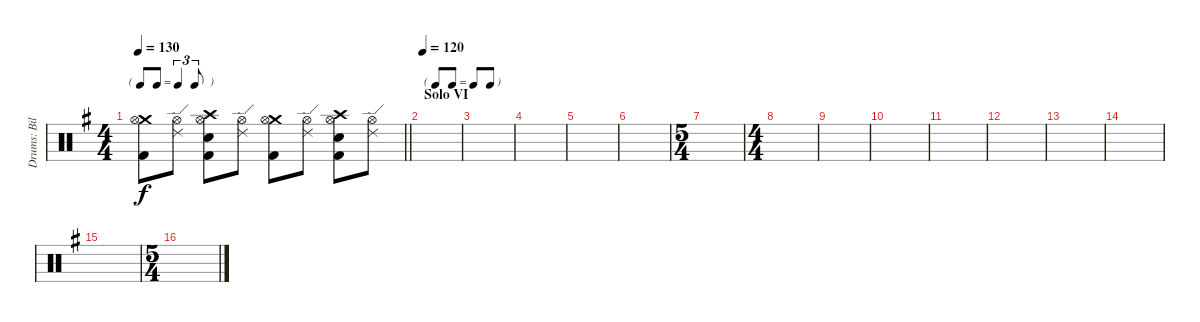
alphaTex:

\track ("Drums: Bill" "Drums: Bil") {instrument percussion}
\staff {score}
\articulation defaults
\ts (4 4)
\tf triplet8th
\tempo 130
\clef neutral
\barLineRight lightlight
\ks g
("Crash medium (hit)" "Hi-Hat (open)" "Kick (hit) 2").8{dy f} ("Ride (edge) 2" "Hi-Hat (open)").8 ("Crash high (hit)" "Hi-Hat (open)" "Snare (hit) 2" "Kick (hit) 2").8 ("Ride (edge) 2" "Hi-Hat (open)").8 ("Crash medium (hit)" "Hi-Hat (open)" "Kick (hit) 2").8 ("Ride (edge) 2" "Hi-Hat (open)").8 ("Crash high (hit)" "Hi-Hat (open)" "Snare (hit) 2" "Kick (hit) 2").8 ("Ride (edge) 2" "Hi-Hat (open)").8 |
\tf none
\section ("" "Solo VI")
\tempo 120
|
|
|
|
|
\ts (5 4)
|
\ts (4 4)
|
|
|
|
|
|
|
|
\ts (5 4)
